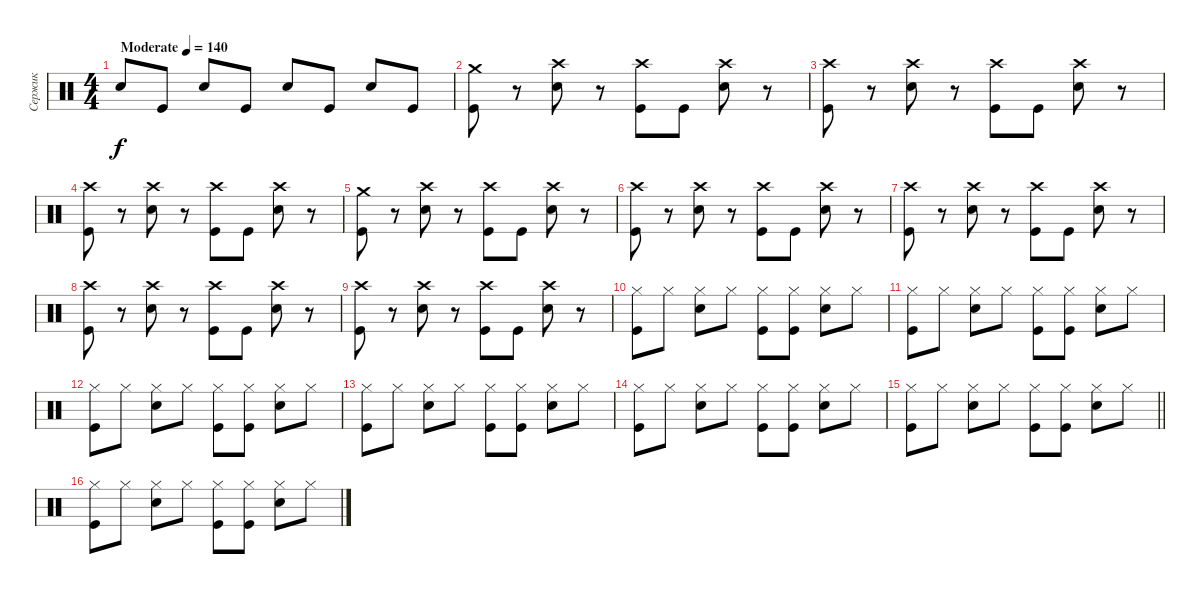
\track ("Сержик" "Сержик") {instrument percussion}
\staff {score}
\articulation defaults
\ts (4 4)
\tempo (140 "Moderate")
\clef neutral
\ks c "Electric Snare (hit)".8{dy f} "Kick (hit)".8 "Electric Snare (hit)".8 "Kick (hit)".8 "Electric Snare (hit)".8 "Kick (hit)".8 "Electric Snare (hit)".8 "Kick (hit)".8
|
("Crash medium (hit)" "Kick (hit)").8 r.8 ("Crash high (hit)" "Electric Snare (hit)").8 r.8 ("Crash high (hit)" "Kick (hit)").8 "Kick (hit)".8 ("Crash high (hit)" "Electric Snare (hit)").8 r.8 |
("Crash high (hit)" "Kick (hit)").8 r.8 ("Crash high (hit)" "Electric Snare (hit)").8 r.8 ("Crash high (hit)" "Kick (hit)").8 "Kick (hit)".8 ("Crash high (hit)" "Electric Snare (hit)").8 r.8 |
("Crash high (hit)" "Kick (hit)").8 r.8 ("Crash high (hit)" "Electric Snare (hit)").8 r.8 ("Crash high (hit)" "Kick (hit)").8 "Kick (hit)".8 ("Crash high (hit)" "Electric Snare (hit)").8 r.8 |
("Crash medium (hit)" "Kick (hit)").8 r.8 ("Crash high (hit)" "Electric Snare (hit)").8 r.8 ("Crash high (hit)" "Kick (hit)").8 "Kick (hit)".8 ("Crash high (hit)" "Electric Snare (hit)").8 r.8 |
("Crash high (hit)" "Kick (hit)").8 r.8 ("Crash high (hit)" "Electric Snare (hit)").8 r.8 ("Crash high (hit)" "Kick (hit)").8 "Kick (hit)".8 ("Crash high (hit)" "Electric Snare (hit)").8 r.8 |
("Crash high (hit)" "Kick (hit)").8 r.8 ("Crash high (hit)" "Electric Snare (hit)").8 r.8 ("Crash high (hit)" "Kick (hit)").8 "Kick (hit)".8 ("Crash high (hit)" "Electric Snare (hit)").8 r.8 |
("Crash high (hit)" "Kick (hit)").8 r.8 ("Crash high (hit)" "Electric Snare (hit)").8 r.8 ("Crash high (hit)" "Kick (hit)").8 "Kick (hit)".8 ("Crash high (hit)" "Electric Snare (hit)").8 r.8 |
("Crash high (hit)" "Kick (hit)").8 r.8 ("Crash high (hit)" "Electric Snare (hit)").8 r.8 ("Crash high (hit)" "Kick (hit)").8 "Kick (hit)".8 ("Crash high (hit)" "Electric Snare (hit)").8 r.8 |
("Hi-Hat (closed)" "Kick (hit)").8 "Hi-Hat (closed)".8 ("Hi-Hat (closed)" "Electric Snare (hit)").8 "Hi-Hat (closed)".8 ("Hi-Hat (closed)" "Kick (hit)").8 ("Hi-Hat (closed)" "Kick (hit)").8 ("Hi-Hat (closed)" "Electric Snare (hit)").8 "Hi-Hat (closed)".8 |
("Hi-Hat (closed)" "Kick (hit)").8 "Hi-Hat (closed)".8 ("Hi-Hat (closed)" "Electric Snare (hit)").8 "Hi-Hat (closed)".8 ("Hi-Hat (closed)" "Kick (hit)").8 ("Hi-Hat (closed)" "Kick (hit)").8 ("Hi-Hat (closed)" "Electric Snare (hit)").8 "Hi-Hat (closed)".8 |
("Hi-Hat (closed)" "Kick (hit)").8 "Hi-Hat (closed)".8 ("Hi-Hat (closed)" "Electric Snare (hit)").8 "Hi-Hat (closed)".8 ("Hi-Hat (closed)" "Kick (hit)").8 ("Hi-Hat (closed)" "Kick (hit)").8 ("Hi-Hat (closed)" "Electric Snare (hit)").8 "Hi-Hat (closed)".8 |
("Hi-Hat (closed)" "Kick (hit)").8 "Hi-Hat (closed)".8 ("Hi-Hat (closed)" "Electric Snare (hit)").8 "Hi-Hat (closed)".8 ("Hi-Hat (closed)" "Kick (hit)").8 ("Hi-Hat (closed)" "Kick (hit)").8 ("Hi-Hat (closed)" "Electric Snare (hit)").8 "Hi-Hat (closed)".8 |
("Hi-Hat (closed)" "Kick (hit)").8 "Hi-Hat (closed)".8 ("Hi-Hat (closed)" "Electric Snare (hit)").8 "Hi-Hat (closed)".8 ("Hi-Hat (closed)" "Kick (hit)").8 ("Hi-Hat (closed)" "Kick (hit)").8 ("Hi-Hat (closed)" "Electric Snare (hit)").8 "Hi-Hat (closed)".8 |
\barLineRight lightlight
("Hi-Hat (closed)" "Kick (hit)").8 "Hi-Hat (closed)".8 ("Hi-Hat (closed)" "Electric Snare (hit)").8 "Hi-Hat (closed)".8 ("Hi-Hat (closed)" "Kick (hit)").8 ("Hi-Hat (closed)" "Kick (hit)").8 ("Hi-Hat (closed)" "Electric Snare (hit)").8 "Hi-Hat (closed)".8 |
("Hi-Hat (closed)" "Kick (hit)").8 "Hi-Hat (closed)".8 ("Hi-Hat (closed)" "Electric Snare (hit)").8 "Hi-Hat (closed)".8 ("Hi-Hat (closed)" "Kick (hit)").8 ("Hi-Hat (closed)" "Kick (hit)").8 ("Hi-Hat (closed)" "Electric Snare (hit)").8 "Hi-Hat (closed)".8
